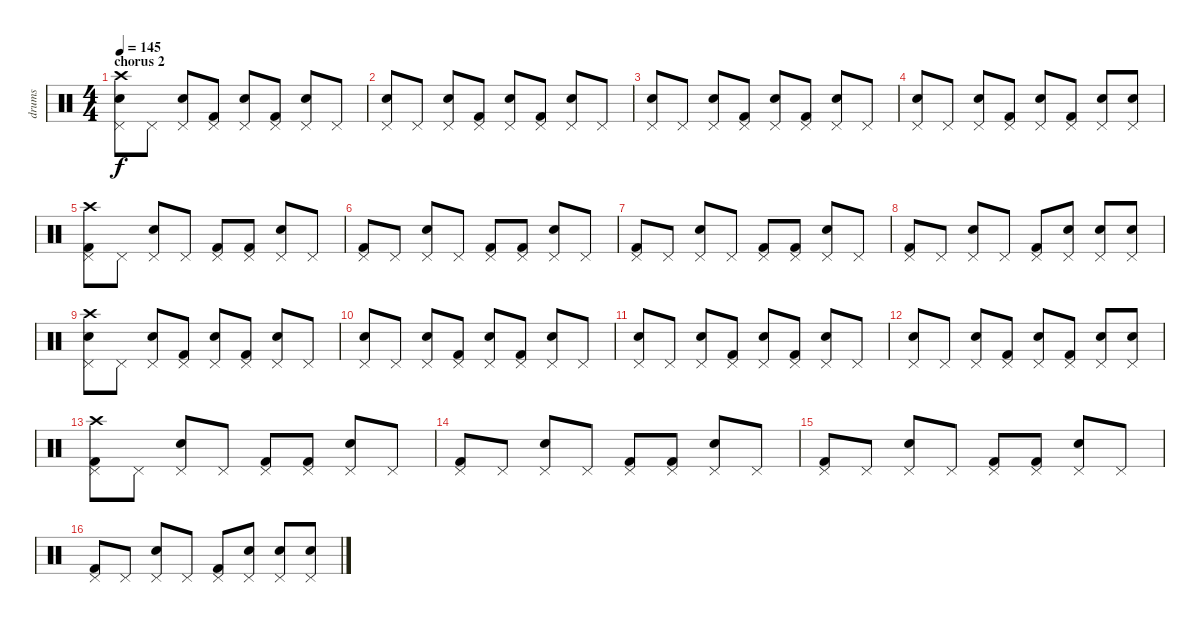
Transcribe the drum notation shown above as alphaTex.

\track ("drums" "drums") {instrument percussion}
\staff {score}
\articulation defaults
\ts (4 4)
\section ("" "chorus 2")
\tempo 145
\clef neutral
\ks c
("Crash high (hit)" "Snare (hit) 2" "Pedal Hi-Hat (hit)").8{dy f} "Pedal Hi-Hat (hit)".8 ("Snare (hit) 2" "Pedal Hi-Hat (hit)").8 ("Kick (hit) 2" "Pedal Hi-Hat (hit)").8 ("Snare (hit) 2" "Pedal Hi-Hat (hit)").8 ("Kick (hit) 2" "Pedal Hi-Hat (hit)").8 ("Snare (hit) 2" "Pedal Hi-Hat (hit)").8 "Pedal Hi-Hat (hit)".8 |
("Snare (hit) 2" "Pedal Hi-Hat (hit)").8 "Pedal Hi-Hat (hit)".8 ("Snare (hit) 2" "Pedal Hi-Hat (hit)").8 ("Kick (hit) 2" "Pedal Hi-Hat (hit)").8 ("Snare (hit) 2" "Pedal Hi-Hat (hit)").8 ("Kick (hit) 2" "Pedal Hi-Hat (hit)").8 ("Snare (hit) 2" "Pedal Hi-Hat (hit)").8 "Pedal Hi-Hat (hit)".8 |
("Snare (hit) 2" "Pedal Hi-Hat (hit)").8 "Pedal Hi-Hat (hit)".8 ("Snare (hit) 2" "Pedal Hi-Hat (hit)").8 ("Kick (hit) 2" "Pedal Hi-Hat (hit)").8 ("Snare (hit) 2" "Pedal Hi-Hat (hit)").8 ("Kick (hit) 2" "Pedal Hi-Hat (hit)").8 ("Snare (hit) 2" "Pedal Hi-Hat (hit)").8 "Pedal Hi-Hat (hit)".8 |
("Snare (hit) 2" "Pedal Hi-Hat (hit)").8 "Pedal Hi-Hat (hit)".8 ("Snare (hit) 2" "Pedal Hi-Hat (hit)").8 ("Kick (hit) 2" "Pedal Hi-Hat (hit)").8 ("Snare (hit) 2" "Pedal Hi-Hat (hit)").8 ("Kick (hit) 2" "Pedal Hi-Hat (hit)").8 ("Snare (hit) 2" "Pedal Hi-Hat (hit)").8 ("Snare (hit) 2" "Pedal Hi-Hat (hit)").8 |
("Kick (hit) 2" "Crash high (hit)" "Pedal Hi-Hat (hit)").8 "Pedal Hi-Hat (hit)".8 ("Snare (hit) 2" "Pedal Hi-Hat (hit)").8 "Pedal Hi-Hat (hit)".8 ("Kick (hit) 2" "Pedal Hi-Hat (hit)").8 ("Kick (hit) 2" "Pedal Hi-Hat (hit)").8 ("Snare (hit) 2" "Pedal Hi-Hat (hit)").8 "Pedal Hi-Hat (hit)".8 |
("Kick (hit) 2" "Pedal Hi-Hat (hit)").8 "Pedal Hi-Hat (hit)".8 ("Snare (hit) 2" "Pedal Hi-Hat (hit)").8 "Pedal Hi-Hat (hit)".8 ("Kick (hit) 2" "Pedal Hi-Hat (hit)").8 ("Kick (hit) 2" "Pedal Hi-Hat (hit)").8 ("Snare (hit) 2" "Pedal Hi-Hat (hit)").8 "Pedal Hi-Hat (hit)".8 |
("Kick (hit) 2" "Pedal Hi-Hat (hit)").8 "Pedal Hi-Hat (hit)".8 ("Snare (hit) 2" "Pedal Hi-Hat (hit)").8 "Pedal Hi-Hat (hit)".8 ("Kick (hit) 2" "Pedal Hi-Hat (hit)").8 ("Kick (hit) 2" "Pedal Hi-Hat (hit)").8 ("Snare (hit) 2" "Pedal Hi-Hat (hit)").8 "Pedal Hi-Hat (hit)".8 |
("Kick (hit) 2" "Pedal Hi-Hat (hit)").8 "Pedal Hi-Hat (hit)".8 ("Snare (hit) 2" "Pedal Hi-Hat (hit)").8 "Pedal Hi-Hat (hit)".8 ("Kick (hit) 2" "Pedal Hi-Hat (hit)").8 ("Snare (hit) 2" "Pedal Hi-Hat (hit)").8 ("Snare (hit) 2" "Pedal Hi-Hat (hit)").8 ("Snare (hit) 2" "Pedal Hi-Hat (hit)").8 |
("Crash high (hit)" "Snare (hit) 2" "Pedal Hi-Hat (hit)").8 "Pedal Hi-Hat (hit)".8 ("Snare (hit) 2" "Pedal Hi-Hat (hit)").8 ("Kick (hit) 2" "Pedal Hi-Hat (hit)").8 ("Snare (hit) 2" "Pedal Hi-Hat (hit)").8 ("Kick (hit) 2" "Pedal Hi-Hat (hit)").8 ("Snare (hit) 2" "Pedal Hi-Hat (hit)").8 "Pedal Hi-Hat (hit)".8 |
("Snare (hit) 2" "Pedal Hi-Hat (hit)").8 "Pedal Hi-Hat (hit)".8 ("Snare (hit) 2" "Pedal Hi-Hat (hit)").8 ("Kick (hit) 2" "Pedal Hi-Hat (hit)").8 ("Snare (hit) 2" "Pedal Hi-Hat (hit)").8 ("Kick (hit) 2" "Pedal Hi-Hat (hit)").8 ("Snare (hit) 2" "Pedal Hi-Hat (hit)").8 "Pedal Hi-Hat (hit)".8 |
("Snare (hit) 2" "Pedal Hi-Hat (hit)").8 "Pedal Hi-Hat (hit)".8 ("Snare (hit) 2" "Pedal Hi-Hat (hit)").8 ("Kick (hit) 2" "Pedal Hi-Hat (hit)").8 ("Snare (hit) 2" "Pedal Hi-Hat (hit)").8 ("Kick (hit) 2" "Pedal Hi-Hat (hit)").8 ("Snare (hit) 2" "Pedal Hi-Hat (hit)").8 "Pedal Hi-Hat (hit)".8 |
("Snare (hit) 2" "Pedal Hi-Hat (hit)").8 "Pedal Hi-Hat (hit)".8 ("Snare (hit) 2" "Pedal Hi-Hat (hit)").8 ("Kick (hit) 2" "Pedal Hi-Hat (hit)").8 ("Snare (hit) 2" "Pedal Hi-Hat (hit)").8 ("Kick (hit) 2" "Pedal Hi-Hat (hit)").8 ("Snare (hit) 2" "Pedal Hi-Hat (hit)").8 ("Snare (hit) 2" "Pedal Hi-Hat (hit)").8 |
("Kick (hit) 2" "Crash high (hit)" "Pedal Hi-Hat (hit)").8 "Pedal Hi-Hat (hit)".8 ("Snare (hit) 2" "Pedal Hi-Hat (hit)").8 "Pedal Hi-Hat (hit)".8 ("Kick (hit) 2" "Pedal Hi-Hat (hit)").8 ("Kick (hit) 2" "Pedal Hi-Hat (hit)").8 ("Snare (hit) 2" "Pedal Hi-Hat (hit)").8 "Pedal Hi-Hat (hit)".8 |
("Kick (hit) 2" "Pedal Hi-Hat (hit)").8 "Pedal Hi-Hat (hit)".8 ("Snare (hit) 2" "Pedal Hi-Hat (hit)").8 "Pedal Hi-Hat (hit)".8 ("Kick (hit) 2" "Pedal Hi-Hat (hit)").8 ("Kick (hit) 2" "Pedal Hi-Hat (hit)").8 ("Snare (hit) 2" "Pedal Hi-Hat (hit)").8 "Pedal Hi-Hat (hit)".8 |
("Kick (hit) 2" "Pedal Hi-Hat (hit)").8 "Pedal Hi-Hat (hit)".8 ("Snare (hit) 2" "Pedal Hi-Hat (hit)").8 "Pedal Hi-Hat (hit)".8 ("Kick (hit) 2" "Pedal Hi-Hat (hit)").8 ("Kick (hit) 2" "Pedal Hi-Hat (hit)").8 ("Snare (hit) 2" "Pedal Hi-Hat (hit)").8 "Pedal Hi-Hat (hit)".8 |
("Kick (hit) 2" "Pedal Hi-Hat (hit)").8 "Pedal Hi-Hat (hit)".8 ("Snare (hit) 2" "Pedal Hi-Hat (hit)").8 "Pedal Hi-Hat (hit)".8 ("Kick (hit) 2" "Pedal Hi-Hat (hit)").8 ("Snare (hit) 2" "Pedal Hi-Hat (hit)").8 ("Snare (hit) 2" "Pedal Hi-Hat (hit)").8 ("Snare (hit) 2" "Pedal Hi-Hat (hit)").8
